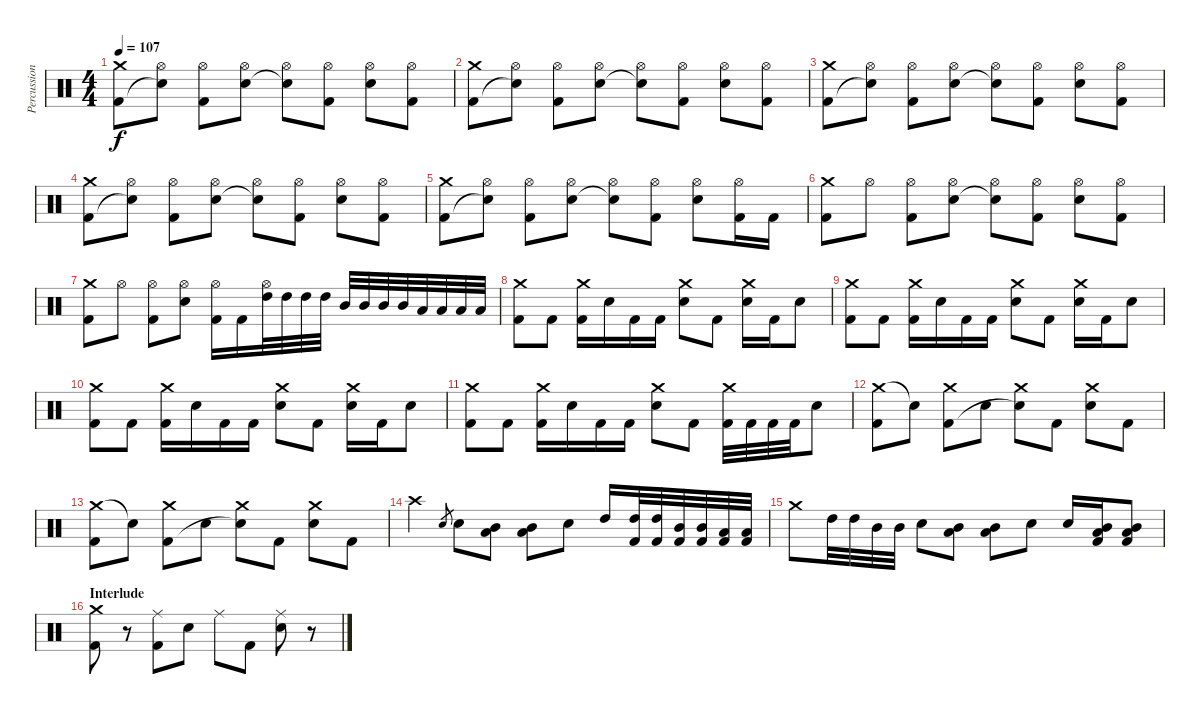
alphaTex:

\track ("Percussions" "Percussion") {instrument percussion}
\staff {score}
\articulation defaults
\ts (4 4)
\tempo 107
\clef neutral
\ks c
("Crash medium (hit)" "Kick (hit) 2").8{dy f} ("Hi-Hat (open)" "Snare (hit)"{t}).8 ("Hi-Hat (open)" "Kick (hit) 2").8 ("Hi-Hat (open)" "Electric Snare (hit)").8 ("Hi-Hat (open)" "Snare (hit)"{t}).8 ("Hi-Hat (open)" "Kick (hit) 2").8 ("Hi-Hat (open)" "Electric Snare (hit)").8 ("Hi-Hat (open)" "Kick (hit) 2").8 |
("Crash medium (hit)" "Kick (hit) 2").8 ("Hi-Hat (open)" "Snare (hit)"{t}).8 ("Hi-Hat (open)" "Kick (hit) 2").8 ("Hi-Hat (open)" "Electric Snare (hit)").8 ("Hi-Hat (open)" "Snare (hit)"{t}).8 ("Hi-Hat (open)" "Kick (hit) 2").8 ("Hi-Hat (open)" "Electric Snare (hit)").8 ("Hi-Hat (open)" "Kick (hit) 2").8 |
("Crash medium (hit)" "Kick (hit) 2").8 ("Hi-Hat (open)" "Snare (hit)"{t}).8 ("Hi-Hat (open)" "Kick (hit) 2").8 ("Hi-Hat (open)" "Electric Snare (hit)").8 ("Hi-Hat (open)" "Snare (hit)"{t}).8 ("Hi-Hat (open)" "Kick (hit) 2").8 ("Hi-Hat (open)" "Electric Snare (hit)").8 ("Hi-Hat (open)" "Kick (hit) 2").8 |
("Crash medium (hit)" "Kick (hit) 2").8 ("Hi-Hat (open)" "Snare (hit)"{t}).8 ("Hi-Hat (open)" "Kick (hit) 2").8 ("Hi-Hat (open)" "Electric Snare (hit)").8 ("Hi-Hat (open)" "Snare (hit)"{t}).8 ("Hi-Hat (open)" "Kick (hit) 2").8 ("Hi-Hat (open)" "Electric Snare (hit)").8 ("Hi-Hat (open)" "Kick (hit) 2").8 |
("Crash medium (hit)" "Kick (hit) 2").8 ("Hi-Hat (open)" "Snare (hit)"{t}).8 ("Hi-Hat (open)" "Kick (hit) 2").8 ("Hi-Hat (open)" "Electric Snare (hit)").8 ("Hi-Hat (open)" "Snare (hit)"{t}).8 ("Hi-Hat (open)" "Kick (hit) 2").8 ("Hi-Hat (open)" "Electric Snare (hit)").8 ("Hi-Hat (open)" "Kick (hit) 2").16 "Kick (hit) 2".16 |
("Crash medium (hit)" "Kick (hit) 2").8 "Hi-Hat (open)".8 ("Hi-Hat (open)" "Kick (hit) 2").8 ("Hi-Hat (open)" "Electric Snare (hit)").8 ("Hi-Hat (open)" "Snare (hit)"{t}).8 ("Hi-Hat (open)" "Kick (hit) 2").8 ("Hi-Hat (open)" "Electric Snare (hit)").8 ("Hi-Hat (open)" "Kick (hit) 2").8 |
("Crash medium (hit)" "Kick (hit) 2").8 "Hi-Hat (open)".8 ("Hi-Hat (open)" "Kick (hit) 2").8 ("Hi-Hat (open)" "Electric Snare (hit)").8 ("Hi-Hat (open)" "Kick (hit) 2").16 "Kick (hit) 2".16 ("Hi-Hat (open)" "High Tom (hit)").32 "High Tom (hit)".32 "High Tom (hit)".32 "High Tom (hit)".32 "Mid Tom (hit)".32 "Mid Tom (hit)".32 "Mid Tom (hit)".32 "Mid Tom (hit)".32 "Low Tom (hit)".32 "Low Tom (hit)".32 "Low Tom (hit)".32 "Low Tom (hit)".32 |
("Crash medium (hit)" "Kick (hit) 2").8 "Kick (hit) 2".8 ("Crash medium (hit)" "Kick (hit) 2").16 "Electric Snare (hit)".16 "Kick (hit) 2".16 "Kick (hit) 2".16 ("Crash medium (hit)" "Electric Snare (hit)").8 "Kick (hit) 2".8 ("Crash medium (hit)" "Electric Snare (hit)").16 "Kick (hit) 2".16 "Electric Snare (hit)".8 |
("Crash medium (hit)" "Kick (hit) 2").8 "Kick (hit) 2".8 ("Crash medium (hit)" "Kick (hit) 2").16 "Electric Snare (hit)".16 "Kick (hit) 2".16 "Kick (hit) 2".16 ("Crash medium (hit)" "Electric Snare (hit)").8 "Kick (hit) 2".8 ("Crash medium (hit)" "Electric Snare (hit)").16 "Kick (hit) 2".16 "Electric Snare (hit)".8 |
("Crash medium (hit)" "Kick (hit) 2").8 "Kick (hit) 2".8 ("Crash medium (hit)" "Kick (hit) 2").16 "Electric Snare (hit)".16 "Kick (hit) 2".16 "Kick (hit) 2".16 ("Crash medium (hit)" "Electric Snare (hit)").8 "Kick (hit) 2".8 ("Crash medium (hit)" "Electric Snare (hit)").16 "Kick (hit) 2".16 "Electric Snare (hit)".8 |
("Crash medium (hit)" "Kick (hit) 2").8 "Kick (hit) 2".8 ("Crash medium (hit)" "Kick (hit) 2").16 "Electric Snare (hit)".16 "Kick (hit) 2".16 "Kick (hit) 2".16 ("Crash medium (hit)" "Electric Snare (hit)").8 "Kick (hit) 2".8 ("Crash medium (hit)" "Kick (hit) 2").32 "Kick (hit) 2".32 "Kick (hit) 2".32 "Kick (hit) 2".32 "Electric Snare (hit)".8 |
("Crash medium (hit)" "Kick (hit) 2").8 "Snare (hit)"{t}.8 ("Crash medium (hit)" "Kick (hit) 2").8 "Electric Snare (hit)".8 ("Crash medium (hit)" "Snare (hit)"{t}).8 "Kick (hit) 2".8 ("Crash medium (hit)" "Electric Snare (hit)").8 "Kick (hit) 2".8 |
("Crash medium (hit)" "Kick (hit) 2").8 "Snare (hit)"{t}.8 ("Crash medium (hit)" "Kick (hit) 2").8 "Electric Snare (hit)".8 ("Crash medium (hit)" "Snare (hit)"{t}).8 "Kick (hit) 2".8 ("Crash medium (hit)" "Electric Snare (hit)").8 "Kick (hit) 2".8 |
"Crash high (hit)".4 "Electric Snare (hit)".8{gr} "Electric Snare (hit)".8 ("Mid Tom (hit)" "Low Tom (hit)").8 ("Mid Tom (hit)" "Low Tom (hit)").8 "Electric Snare (hit)".8 "High Tom (hit)".16 ("High Tom (hit)" "Kick (hit) 2").32 ("High Tom (hit)" "Kick (hit) 2").32 ("Mid Tom (hit)" "Kick (hit) 2").32 ("Mid Tom (hit)" "Kick (hit) 2").32 ("Low Tom (hit)" "Kick (hit) 2").32 ("Low Tom (hit)" "Kick (hit) 2").32 |
"Crash medium (hit)".8 "High Tom (hit)".32 "High Tom (hit)".32 "Mid Tom (hit)".32 "Mid Tom (hit)".32 "Electric Snare (hit)".8 ("Mid Tom (hit)" "Low Tom (hit)").8 ("Mid Tom (hit)" "Low Tom (hit)").8 "Electric Snare (hit)".8 "Electric Snare (hit)".16 ("Mid Tom (hit)" "Low Tom (hit)" "Kick (hit) 2").16 ("Mid Tom (hit)" "Low Tom (hit)" "Kick (hit) 2").8 |
\section ("" "Interlude")
("Crash medium (hit)" "Kick (hit) 2").8 r.8 ("Ride (middle)" "Kick (hit) 2").8 "Electric Snare (hit)".8 "Ride (middle)".8 "Kick (hit) 2".8 ("Ride (middle)" "Electric Snare (hit)").8 r.8
